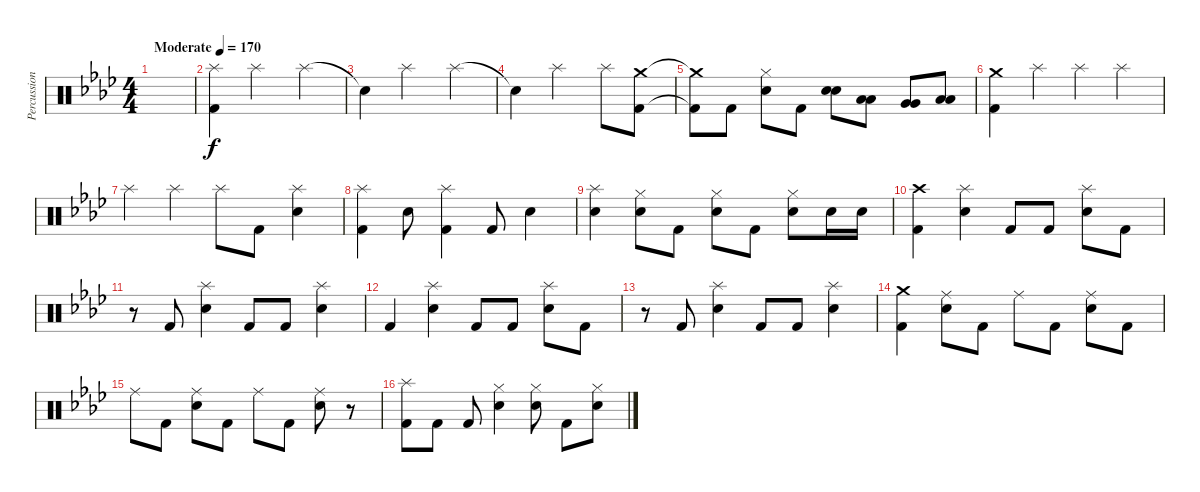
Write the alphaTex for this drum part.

\track ("Percussion" "Percussion") {instrument percussion}
\staff {score}
\articulation defaults
\ts (4 4)
\tempo (170 "Moderate")
\clef neutral
\ks ab
|
("Splash (hit)" "Kick (hit) 2").4 "Splash (hit)".2 "Splash (hit)".4 |
"Snare (hit)"{t}.4 "Splash (hit)".2 "Splash (hit)".4 |
"Snare (hit)"{t}.4 "Splash (hit)".2 "Splash (hit)".8 ("Crash medium (hit)" "Kick (hit) 2").8 |
("Crash medium (hit)"{t} "Kick (hit) 2"{t}).8 "Kick (hit) 2".8 ("Hi-Hat (closed)" "Electric Snare (hit)").8 "Kick (hit) 2".8 ("Electric Snare (hit)" "Electric Snare (hit)").8 ("Low Tom (hit)" "Low Tom (hit)").8 ("Very Low Tom (hit)" "Very Low Tom (hit)").8 ("Low Floor Tom (hit)" "Low Floor Tom (hit)").8 |
("Crash medium (hit)" "Kick (hit) 2").4 "Splash (hit)".4 "Splash (hit)".4 "Splash (hit)".4 |
"Splash (hit)".4 "Splash (hit)".4 "Splash (hit)".8 "Kick (hit) 2".8 ("Splash (hit)" "Electric Snare (hit)").4 |
("Splash (hit)" "Kick (hit) 2").4 "Electric Snare (hit)".8 ("Splash (hit)" "Kick (hit) 2").4 "Kick (hit) 2".8 "Electric Snare (hit)".4 |
("Splash (hit)" "Electric Snare (hit)").4 ("Hi-Hat (closed)" "Electric Snare (hit)").8 "Kick (hit) 2".8 ("Hi-Hat (closed)" "Electric Snare (hit)").8 "Kick (hit) 2".8 ("Hi-Hat (closed)" "Electric Snare (hit)").8 "Electric Snare (hit)".16 "Electric Snare (hit)".16 |
("Crash high (hit)" "Kick (hit) 2").4 ("Splash (hit)" "Electric Snare (hit)").4 "Kick (hit) 2".8 "Kick (hit) 2".8 ("Splash (hit)" "Electric Snare (hit)").8 "Kick (hit) 2".8 |
r.8 "Kick (hit) 2".8 ("Splash (hit)" "Electric Snare (hit)").4 "Kick (hit) 2".8 "Kick (hit) 2".8 ("Splash (hit)" "Electric Snare (hit)").4 |
"Kick (hit) 2".4 ("Splash (hit)" "Electric Snare (hit)").4 "Kick (hit) 2".8 "Kick (hit) 2".8 ("Splash (hit)" "Electric Snare (hit)").8 "Kick (hit) 2".8 |
r.8 "Kick (hit) 2".8 ("Splash (hit)" "Electric Snare (hit)").4 "Kick (hit) 2".8 "Kick (hit) 2".8 ("Splash (hit)" "Electric Snare (hit)").4 |
("Crash medium (hit)" "Kick (hit) 2").4 ("Ride (middle)" "Electric Snare (hit)").8 "Kick (hit) 2".8 "Ride (middle)".8 "Kick (hit) 2".8 ("Ride (middle)" "Electric Snare (hit)").8 "Kick (hit) 2".8 |
"Ride (middle)".8 "Kick (hit) 2".8 ("Ride (middle)" "Electric Snare (hit)").8 "Kick (hit) 2".8 "Ride (middle)".8 "Kick (hit) 2".8 ("Ride (middle)" "Electric Snare (hit)").8 r.8 |
("Splash (hit)" "Kick (hit) 2").8 "Kick (hit) 2".8 "Kick (hit) 2".8 ("Hi-Hat (closed)" "Electric Snare (hit)").4 ("Hi-Hat (closed)" "Electric Snare (hit)").8 "Kick (hit) 2".8 ("Hi-Hat (closed)" "Electric Snare (hit)").8
